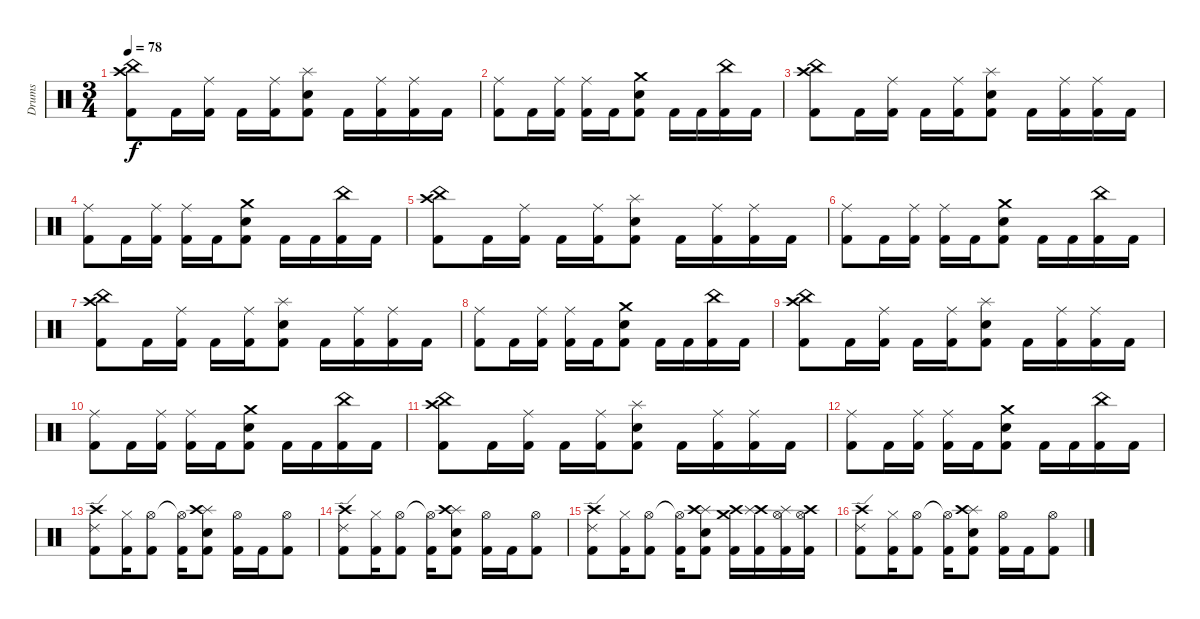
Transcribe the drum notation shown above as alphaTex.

\track ("Drums" "Drums") {instrument percussion}
\staff {score}
\articulation defaults
\ts (3 4)
\tempo 78
\clef neutral
\ks c
("China (hit)" "Crash high (hit)" "Kick (hit) 2").8{dy f} "Kick (hit) 2".16 ("Ride (middle)" "Kick (hit) 2").16 "Kick (hit) 2".16 ("Ride (middle)" "Kick (hit) 2").16 ("Splash (hit)" "Snare (hit) 2" "Kick (hit) 2").8 "Kick (hit) 2".16 ("Ride (middle)" "Kick (hit) 2").16 ("Ride (middle)" "Kick (hit) 2").16 "Kick (hit) 2".16 |
("Ride (middle)" "Kick (hit) 2").8 "Kick (hit) 2".16 ("Ride (middle)" "Kick (hit) 2").16 ("Ride (middle)" "Kick (hit) 2").16 "Kick (hit) 2".16 ("Crash medium (hit)" "Snare (hit) 2" "Kick (hit) 2").8 "Kick (hit) 2".16 "Kick (hit) 2".16 ("China (hit)" "Kick (hit) 2").16 "Kick (hit) 2".16 |
("China (hit)" "Crash high (hit)" "Kick (hit) 2").8 "Kick (hit) 2".16 ("Ride (middle)" "Kick (hit) 2").16 "Kick (hit) 2".16 ("Ride (middle)" "Kick (hit) 2").16 ("Splash (hit)" "Snare (hit) 2" "Kick (hit) 2").8 "Kick (hit) 2".16 ("Ride (middle)" "Kick (hit) 2").16 ("Ride (middle)" "Kick (hit) 2").16 "Kick (hit) 2".16 |
("Ride (middle)" "Kick (hit) 2").8 "Kick (hit) 2".16 ("Ride (middle)" "Kick (hit) 2").16 ("Ride (middle)" "Kick (hit) 2").16 "Kick (hit) 2".16 ("Crash medium (hit)" "Snare (hit) 2" "Kick (hit) 2").8 "Kick (hit) 2".16 "Kick (hit) 2".16 ("China (hit)" "Kick (hit) 2").16 "Kick (hit) 2".16 |
("China (hit)" "Crash high (hit)" "Kick (hit) 2").8 "Kick (hit) 2".16 ("Ride (middle)" "Kick (hit) 2").16 "Kick (hit) 2".16 ("Ride (middle)" "Kick (hit) 2").16 ("Splash (hit)" "Snare (hit) 2" "Kick (hit) 2").8 "Kick (hit) 2".16 ("Ride (middle)" "Kick (hit) 2").16 ("Ride (middle)" "Kick (hit) 2").16 "Kick (hit) 2".16 |
("Ride (middle)" "Kick (hit) 2").8 "Kick (hit) 2".16 ("Ride (middle)" "Kick (hit) 2").16 ("Ride (middle)" "Kick (hit) 2").16 "Kick (hit) 2".16 ("Crash medium (hit)" "Snare (hit) 2" "Kick (hit) 2").8 "Kick (hit) 2".16 "Kick (hit) 2".16 ("China (hit)" "Kick (hit) 2").16 "Kick (hit) 2".16 |
("China (hit)" "Crash high (hit)" "Kick (hit) 2").8 "Kick (hit) 2".16 ("Ride (middle)" "Kick (hit) 2").16 "Kick (hit) 2".16 ("Ride (middle)" "Kick (hit) 2").16 ("Splash (hit)" "Snare (hit) 2" "Kick (hit) 2").8 "Kick (hit) 2".16 ("Ride (middle)" "Kick (hit) 2").16 ("Ride (middle)" "Kick (hit) 2").16 "Kick (hit) 2".16 |
("Ride (middle)" "Kick (hit) 2").8 "Kick (hit) 2".16 ("Ride (middle)" "Kick (hit) 2").16 ("Ride (middle)" "Kick (hit) 2").16 "Kick (hit) 2".16 ("Crash medium (hit)" "Snare (hit) 2" "Kick (hit) 2").8 "Kick (hit) 2".16 "Kick (hit) 2".16 ("China (hit)" "Kick (hit) 2").16 "Kick (hit) 2".16 |
("China (hit)" "Crash high (hit)" "Kick (hit) 2").8 "Kick (hit) 2".16 ("Ride (middle)" "Kick (hit) 2").16 "Kick (hit) 2".16 ("Ride (middle)" "Kick (hit) 2").16 ("Splash (hit)" "Snare (hit) 2" "Kick (hit) 2").8 "Kick (hit) 2".16 ("Ride (middle)" "Kick (hit) 2").16 ("Ride (middle)" "Kick (hit) 2").16 "Kick (hit) 2".16 |
("Ride (middle)" "Kick (hit) 2").8 "Kick (hit) 2".16 ("Ride (middle)" "Kick (hit) 2").16 ("Ride (middle)" "Kick (hit) 2").16 "Kick (hit) 2".16 ("Crash medium (hit)" "Snare (hit) 2" "Kick (hit) 2").8 "Kick (hit) 2".16 "Kick (hit) 2".16 ("China (hit)" "Kick (hit) 2").16 "Kick (hit) 2".16 |
("China (hit)" "Crash high (hit)" "Kick (hit) 2").8 "Kick (hit) 2".16 ("Ride (middle)" "Kick (hit) 2").16 "Kick (hit) 2".16 ("Ride (middle)" "Kick (hit) 2").16 ("Splash (hit)" "Snare (hit) 2" "Kick (hit) 2").8 "Kick (hit) 2".16 ("Ride (middle)" "Kick (hit) 2").16 ("Ride (middle)" "Kick (hit) 2").16 "Kick (hit) 2".16 |
("Ride (middle)" "Kick (hit) 2").8 "Kick (hit) 2".16 ("Ride (middle)" "Kick (hit) 2").16 ("Ride (middle)" "Kick (hit) 2").16 "Kick (hit) 2".16 ("Crash medium (hit)" "Snare (hit) 2" "Kick (hit) 2").8 "Kick (hit) 2".16 "Kick (hit) 2".16 ("China (hit)" "Kick (hit) 2").16 "Kick (hit) 2".16 |
("Crash high (hit)" "Ride (edge) 2" "Kick (hit) 2").8 ("Hi-Hat (closed)" "Kick (hit) 2").16 ("Hi-Hat (open)" "Kick (hit) 2").8 ("Hi-Hat (open)"{t} "Kick (hit) 2").16 ("Splash (hit)" "Crash high (hit)" "Snare (hit) 2" "Kick (hit) 2").8 ("Hi-Hat (open)" "Kick (hit) 2").16 "Kick (hit) 2".16 ("Hi-Hat (open)" "Kick (hit) 2").8 |
("Crash high (hit)" "Ride (edge) 2" "Kick (hit) 2").8 ("Hi-Hat (closed)" "Kick (hit) 2").16 ("Hi-Hat (open)" "Kick (hit) 2").8 ("Hi-Hat (open)"{t} "Kick (hit) 2").16 ("Splash (hit)" "Crash high (hit)" "Snare (hit) 2" "Kick (hit) 2").8 ("Hi-Hat (open)" "Kick (hit) 2").16 "Kick (hit) 2".16 ("Hi-Hat (open)" "Kick (hit) 2").8 |
("Crash high (hit)" "Ride (edge) 2" "Kick (hit) 2").8 ("Hi-Hat (closed)" "Kick (hit) 2").16 ("Hi-Hat (open)" "Kick (hit) 2").8 ("Hi-Hat (open)"{t} "Kick (hit) 2").16 ("Splash (hit)" "Crash high (hit)" "Snare (hit) 2" "Kick (hit) 2").8 ("Crash medium (hit)" "Crash high (hit)" "Kick (hit) 2").16 ("Crash high (hit)" "Splash (hit)" "Kick (hit) 2").16 ("Hi-Hat (open)" "Splash (hit)" "Kick (hit) 2").16 ("Hi-Hat (open)" "Crash high (hit)" "Kick (hit) 2").16 |
("Crash high (hit)" "Ride (edge) 2" "Kick (hit) 2").8 ("Hi-Hat (closed)" "Kick (hit) 2").16 ("Hi-Hat (open)" "Kick (hit) 2").8 ("Hi-Hat (open)"{t} "Kick (hit) 2").16 ("Splash (hit)" "Crash high (hit)" "Snare (hit) 2" "Kick (hit) 2").8 ("Hi-Hat (open)" "Kick (hit) 2").16 "Kick (hit) 2".16 ("Hi-Hat (open)" "Kick (hit) 2").8
